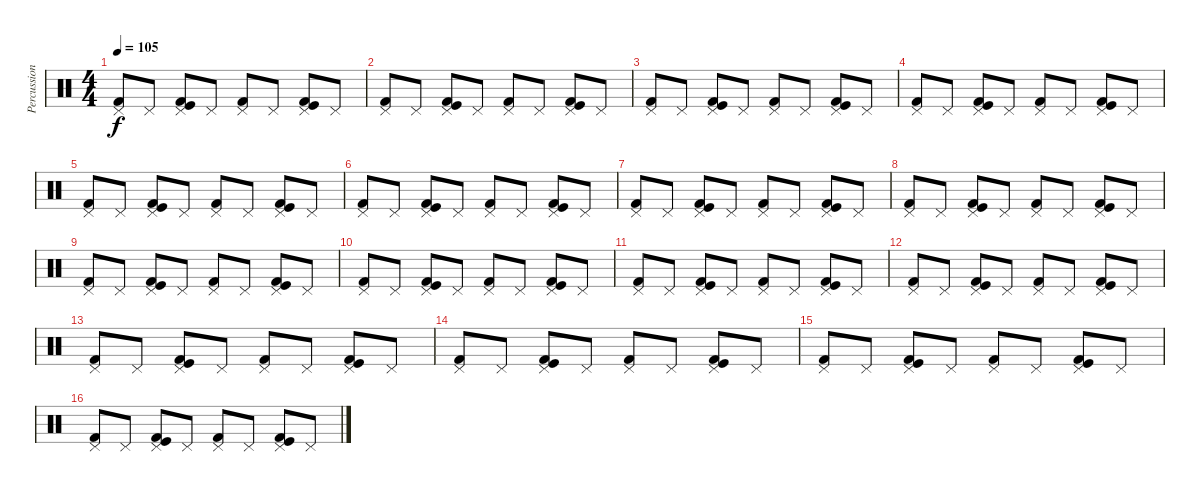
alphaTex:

\track ("Percussion" "Percussion") {instrument percussion}
\staff {score}
\articulation defaults
\ts (4 4)
\tempo 105
\clef neutral
\ks aminor
("Kick (hit) 2" "Pedal Hi-Hat (hit)").8{dy f} "Pedal Hi-Hat (hit)".8 ("Kick (hit)" "Pedal Hi-Hat (hit)" "Kick (hit) 2").8 "Pedal Hi-Hat (hit)".8 ("Kick (hit) 2" "Pedal Hi-Hat (hit)").8 "Pedal Hi-Hat (hit)".8 ("Kick (hit)" "Pedal Hi-Hat (hit)" "Kick (hit) 2").8 "Pedal Hi-Hat (hit)".8 |
("Kick (hit) 2" "Pedal Hi-Hat (hit)").8 "Pedal Hi-Hat (hit)".8 ("Kick (hit)" "Pedal Hi-Hat (hit)" "Kick (hit) 2").8 "Pedal Hi-Hat (hit)".8 ("Kick (hit) 2" "Pedal Hi-Hat (hit)").8 "Pedal Hi-Hat (hit)".8 ("Kick (hit)" "Pedal Hi-Hat (hit)" "Kick (hit) 2").8 "Pedal Hi-Hat (hit)".8 |
("Kick (hit) 2" "Pedal Hi-Hat (hit)").8 "Pedal Hi-Hat (hit)".8 ("Kick (hit)" "Pedal Hi-Hat (hit)" "Kick (hit) 2").8 "Pedal Hi-Hat (hit)".8 ("Kick (hit) 2" "Pedal Hi-Hat (hit)").8 "Pedal Hi-Hat (hit)".8 ("Kick (hit)" "Pedal Hi-Hat (hit)" "Kick (hit) 2").8 "Pedal Hi-Hat (hit)".8 |
("Kick (hit) 2" "Pedal Hi-Hat (hit)").8 "Pedal Hi-Hat (hit)".8 ("Kick (hit)" "Pedal Hi-Hat (hit)" "Kick (hit) 2").8 "Pedal Hi-Hat (hit)".8 ("Kick (hit) 2" "Pedal Hi-Hat (hit)").8 "Pedal Hi-Hat (hit)".8 ("Kick (hit)" "Pedal Hi-Hat (hit)" "Kick (hit) 2").8 "Pedal Hi-Hat (hit)".8 |
("Kick (hit) 2" "Pedal Hi-Hat (hit)").8 "Pedal Hi-Hat (hit)".8 ("Kick (hit)" "Pedal Hi-Hat (hit)" "Kick (hit) 2").8 "Pedal Hi-Hat (hit)".8 ("Kick (hit) 2" "Pedal Hi-Hat (hit)").8 "Pedal Hi-Hat (hit)".8 ("Kick (hit)" "Pedal Hi-Hat (hit)" "Kick (hit) 2").8 "Pedal Hi-Hat (hit)".8 |
("Kick (hit) 2" "Pedal Hi-Hat (hit)").8 "Pedal Hi-Hat (hit)".8 ("Kick (hit)" "Pedal Hi-Hat (hit)" "Kick (hit) 2").8 "Pedal Hi-Hat (hit)".8 ("Kick (hit) 2" "Pedal Hi-Hat (hit)").8 "Pedal Hi-Hat (hit)".8 ("Kick (hit)" "Pedal Hi-Hat (hit)" "Kick (hit) 2").8 "Pedal Hi-Hat (hit)".8 |
("Kick (hit) 2" "Pedal Hi-Hat (hit)").8 "Pedal Hi-Hat (hit)".8 ("Kick (hit)" "Pedal Hi-Hat (hit)" "Kick (hit) 2").8 "Pedal Hi-Hat (hit)".8 ("Kick (hit) 2" "Pedal Hi-Hat (hit)").8 "Pedal Hi-Hat (hit)".8 ("Kick (hit)" "Pedal Hi-Hat (hit)" "Kick (hit) 2").8 "Pedal Hi-Hat (hit)".8 |
("Kick (hit) 2" "Pedal Hi-Hat (hit)").8 "Pedal Hi-Hat (hit)".8 ("Kick (hit)" "Pedal Hi-Hat (hit)" "Kick (hit) 2").8 "Pedal Hi-Hat (hit)".8 ("Kick (hit) 2" "Pedal Hi-Hat (hit)").8 "Pedal Hi-Hat (hit)".8 ("Kick (hit)" "Pedal Hi-Hat (hit)" "Kick (hit) 2").8 "Pedal Hi-Hat (hit)".8 |
("Kick (hit) 2" "Pedal Hi-Hat (hit)").8 "Pedal Hi-Hat (hit)".8 ("Kick (hit)" "Pedal Hi-Hat (hit)" "Kick (hit) 2").8 "Pedal Hi-Hat (hit)".8 ("Kick (hit) 2" "Pedal Hi-Hat (hit)").8 "Pedal Hi-Hat (hit)".8 ("Kick (hit)" "Pedal Hi-Hat (hit)" "Kick (hit) 2").8 "Pedal Hi-Hat (hit)".8 |
("Kick (hit) 2" "Pedal Hi-Hat (hit)").8 "Pedal Hi-Hat (hit)".8 ("Kick (hit)" "Pedal Hi-Hat (hit)" "Kick (hit) 2").8 "Pedal Hi-Hat (hit)".8 ("Kick (hit) 2" "Pedal Hi-Hat (hit)").8 "Pedal Hi-Hat (hit)".8 ("Kick (hit)" "Pedal Hi-Hat (hit)" "Kick (hit) 2").8 "Pedal Hi-Hat (hit)".8 |
("Kick (hit) 2" "Pedal Hi-Hat (hit)").8 "Pedal Hi-Hat (hit)".8 ("Kick (hit)" "Pedal Hi-Hat (hit)" "Kick (hit) 2").8 "Pedal Hi-Hat (hit)".8 ("Kick (hit) 2" "Pedal Hi-Hat (hit)").8 "Pedal Hi-Hat (hit)".8 ("Kick (hit)" "Pedal Hi-Hat (hit)" "Kick (hit) 2").8 "Pedal Hi-Hat (hit)".8 |
("Kick (hit) 2" "Pedal Hi-Hat (hit)").8 "Pedal Hi-Hat (hit)".8 ("Kick (hit)" "Pedal Hi-Hat (hit)" "Kick (hit) 2").8 "Pedal Hi-Hat (hit)".8 ("Kick (hit) 2" "Pedal Hi-Hat (hit)").8 "Pedal Hi-Hat (hit)".8 ("Kick (hit)" "Pedal Hi-Hat (hit)" "Kick (hit) 2").8 "Pedal Hi-Hat (hit)".8 |
("Kick (hit) 2" "Pedal Hi-Hat (hit)").8 "Pedal Hi-Hat (hit)".8 ("Kick (hit)" "Pedal Hi-Hat (hit)" "Kick (hit) 2").8 "Pedal Hi-Hat (hit)".8 ("Kick (hit) 2" "Pedal Hi-Hat (hit)").8 "Pedal Hi-Hat (hit)".8 ("Kick (hit)" "Pedal Hi-Hat (hit)" "Kick (hit) 2").8 "Pedal Hi-Hat (hit)".8 |
("Kick (hit) 2" "Pedal Hi-Hat (hit)").8 "Pedal Hi-Hat (hit)".8 ("Kick (hit)" "Pedal Hi-Hat (hit)" "Kick (hit) 2").8 "Pedal Hi-Hat (hit)".8 ("Kick (hit) 2" "Pedal Hi-Hat (hit)").8 "Pedal Hi-Hat (hit)".8 ("Kick (hit)" "Pedal Hi-Hat (hit)" "Kick (hit) 2").8 "Pedal Hi-Hat (hit)".8 |
("Kick (hit) 2" "Pedal Hi-Hat (hit)").8 "Pedal Hi-Hat (hit)".8 ("Kick (hit)" "Pedal Hi-Hat (hit)" "Kick (hit) 2").8 "Pedal Hi-Hat (hit)".8 ("Kick (hit) 2" "Pedal Hi-Hat (hit)").8 "Pedal Hi-Hat (hit)".8 ("Kick (hit)" "Pedal Hi-Hat (hit)" "Kick (hit) 2").8 "Pedal Hi-Hat (hit)".8 |
("Kick (hit) 2" "Pedal Hi-Hat (hit)").8 "Pedal Hi-Hat (hit)".8 ("Kick (hit)" "Pedal Hi-Hat (hit)" "Kick (hit) 2").8 "Pedal Hi-Hat (hit)".8 ("Kick (hit) 2" "Pedal Hi-Hat (hit)").8 "Pedal Hi-Hat (hit)".8 ("Kick (hit)" "Pedal Hi-Hat (hit)" "Kick (hit) 2").8 "Pedal Hi-Hat (hit)".8
